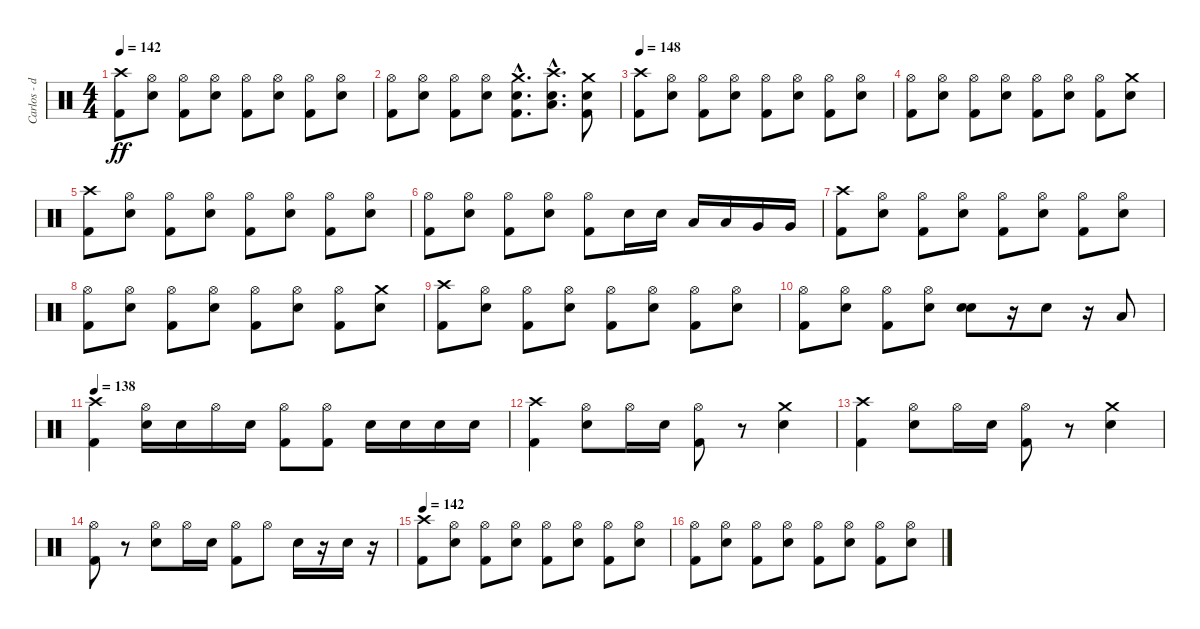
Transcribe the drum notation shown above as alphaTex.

\track ("Carlos - drums" "Carlos - d") {instrument percussion}
\staff {score}
\articulation defaults
\ts (4 4)
\tempo 142
\clef neutral
\ks c
("Kick (hit) 2" "Crash high (hit)").8{dy ff} ("Electric Snare (hit)" "Hi-Hat (open)").8 ("Kick (hit) 2" "Hi-Hat (open)").8 ("Electric Snare (hit)" "Hi-Hat (open)").8 ("Kick (hit) 2" "Hi-Hat (open)").8 ("Electric Snare (hit)" "Hi-Hat (open)").8 ("Kick (hit) 2" "Hi-Hat (open)").8 ("Electric Snare (hit)" "Hi-Hat (open)").8 |
("Kick (hit) 2" "Hi-Hat (open)").8 ("Electric Snare (hit)" "Hi-Hat (open)").8 ("Kick (hit) 2" "Hi-Hat (open)").8 ("Electric Snare (hit)" "Hi-Hat (open)").8 ("Electric Snare (hit)" "Kick (hit) 2" "Crash medium (hit)"{hac}).8{d} ("Electric Snare (hit)" "Low Tom (hit)" "Crash high (hit)"{hac}).8{d} ("Electric Snare (hit)" "Kick (hit) 2" "Crash medium (hit)").8 |
\tempo 148
("Kick (hit) 2" "Crash high (hit)").8 ("Electric Snare (hit)" "Hi-Hat (open)").8 ("Kick (hit) 2" "Hi-Hat (open)").8 ("Electric Snare (hit)" "Hi-Hat (open)").8 ("Kick (hit) 2" "Hi-Hat (open)").8 ("Electric Snare (hit)" "Hi-Hat (open)").8 ("Kick (hit) 2" "Hi-Hat (open)").8 ("Electric Snare (hit)" "Hi-Hat (open)").8 |
("Kick (hit) 2" "Hi-Hat (open)").8 ("Electric Snare (hit)" "Hi-Hat (open)").8 ("Kick (hit) 2" "Hi-Hat (open)").8 ("Electric Snare (hit)" "Hi-Hat (open)").8 ("Kick (hit) 2" "Hi-Hat (open)").8 ("Electric Snare (hit)" "Hi-Hat (open)").8 ("Kick (hit) 2" "Hi-Hat (open)").8 ("Electric Snare (hit)" "Crash medium (hit)").8 |
("Kick (hit) 2" "Crash high (hit)").8 ("Electric Snare (hit)" "Hi-Hat (open)").8 ("Kick (hit) 2" "Hi-Hat (open)").8 ("Electric Snare (hit)" "Hi-Hat (open)").8 ("Kick (hit) 2" "Hi-Hat (open)").8 ("Electric Snare (hit)" "Hi-Hat (open)").8 ("Kick (hit) 2" "Hi-Hat (open)").8 ("Electric Snare (hit)" "Hi-Hat (open)").8 |
("Kick (hit) 2" "Hi-Hat (open)").8 ("Electric Snare (hit)" "Hi-Hat (open)").8 ("Kick (hit) 2" "Hi-Hat (open)").8 ("Electric Snare (hit)" "Hi-Hat (open)").8 ("Kick (hit) 2" "Hi-Hat (open)").8 "Electric Snare (hit)".16 "Electric Snare (hit)".16 "Low Tom (hit)".16 "Low Tom (hit)".16 "Very Low Tom (hit)".16 "Very Low Tom (hit)".16 |
("Kick (hit) 2" "Crash high (hit)").8 ("Electric Snare (hit)" "Hi-Hat (open)").8 ("Kick (hit) 2" "Hi-Hat (open)").8 ("Electric Snare (hit)" "Hi-Hat (open)").8 ("Kick (hit) 2" "Hi-Hat (open)").8 ("Electric Snare (hit)" "Hi-Hat (open)").8 ("Kick (hit) 2" "Hi-Hat (open)").8 ("Electric Snare (hit)" "Hi-Hat (open)").8 |
("Kick (hit) 2" "Hi-Hat (open)").8 ("Electric Snare (hit)" "Hi-Hat (open)").8 ("Kick (hit) 2" "Hi-Hat (open)").8 ("Electric Snare (hit)" "Hi-Hat (open)").8 ("Kick (hit) 2" "Hi-Hat (open)").8 ("Electric Snare (hit)" "Hi-Hat (open)").8 ("Kick (hit) 2" "Hi-Hat (open)").8 ("Electric Snare (hit)" "Crash medium (hit)").8 |
("Kick (hit) 2" "Crash high (hit)").8 ("Electric Snare (hit)" "Hi-Hat (open)").8 ("Kick (hit) 2" "Hi-Hat (open)").8 ("Electric Snare (hit)" "Hi-Hat (open)").8 ("Kick (hit) 2" "Hi-Hat (open)").8 ("Electric Snare (hit)" "Hi-Hat (open)").8 ("Kick (hit) 2" "Hi-Hat (open)").8 ("Electric Snare (hit)" "Hi-Hat (open)").8 |
("Kick (hit) 2" "Hi-Hat (open)").8 ("Electric Snare (hit)" "Hi-Hat (open)").8 ("Kick (hit) 2" "Hi-Hat (open)").8 ("Electric Snare (hit)" "Hi-Hat (open)").8 ("Electric Snare (hit)" "Electric Snare (hit)").8 r.16 "Electric Snare (hit)".8 r.16 "Low Tom (hit)".8 |
\tempo 138
("Kick (hit) 2" "Crash high (hit)").4 ("Electric Snare (hit)" "Hi-Hat (open)").16 "Electric Snare (hit)".16 "Hi-Hat (open)".16 "Electric Snare (hit)".16 ("Kick (hit) 2" "Hi-Hat (open)").8 ("Hi-Hat (open)" "Kick (hit) 2").8 "Electric Snare (hit)".16 "Electric Snare (hit)".16 "Electric Snare (hit)".16 "Electric Snare (hit)".16 |
("Kick (hit) 2" "Crash high (hit)").4 ("Electric Snare (hit)" "Hi-Hat (open)").8 "Hi-Hat (open)".16 "Electric Snare (hit)".16 ("Kick (hit) 2" "Hi-Hat (open)").8 r.8 ("Electric Snare (hit)" "Crash medium (hit)").4 |
("Kick (hit) 2" "Crash high (hit)").4 ("Electric Snare (hit)" "Hi-Hat (open)").8 "Hi-Hat (open)".16 "Electric Snare (hit)".16 ("Kick (hit) 2" "Hi-Hat (open)").8 r.8 ("Electric Snare (hit)" "Crash medium (hit)").4 |
("Kick (hit) 2" "Hi-Hat (open)").8 r.8 ("Electric Snare (hit)" "Hi-Hat (open)").8 "Hi-Hat (open)".16 "Electric Snare (hit)".16 ("Kick (hit) 2" "Hi-Hat (open)").8 "Hi-Hat (open)".8 "Electric Snare (hit)".16 r.16 "Electric Snare (hit)".16 r.16 |
\tempo 142
("Kick (hit) 2" "Crash high (hit)").8 ("Electric Snare (hit)" "Hi-Hat (open)").8 ("Kick (hit) 2" "Hi-Hat (open)").8 ("Electric Snare (hit)" "Hi-Hat (open)").8 ("Kick (hit) 2" "Hi-Hat (open)").8 ("Electric Snare (hit)" "Hi-Hat (open)").8 ("Kick (hit) 2" "Hi-Hat (open)").8 ("Electric Snare (hit)" "Hi-Hat (open)").8 |
("Kick (hit) 2" "Hi-Hat (open)").8 ("Electric Snare (hit)" "Hi-Hat (open)").8 ("Kick (hit) 2" "Hi-Hat (open)").8 ("Electric Snare (hit)" "Hi-Hat (open)").8 ("Kick (hit) 2" "Hi-Hat (open)").8 ("Electric Snare (hit)" "Hi-Hat (open)").8 ("Kick (hit) 2" "Hi-Hat (open)").8 ("Electric Snare (hit)" "Hi-Hat (open)").8
